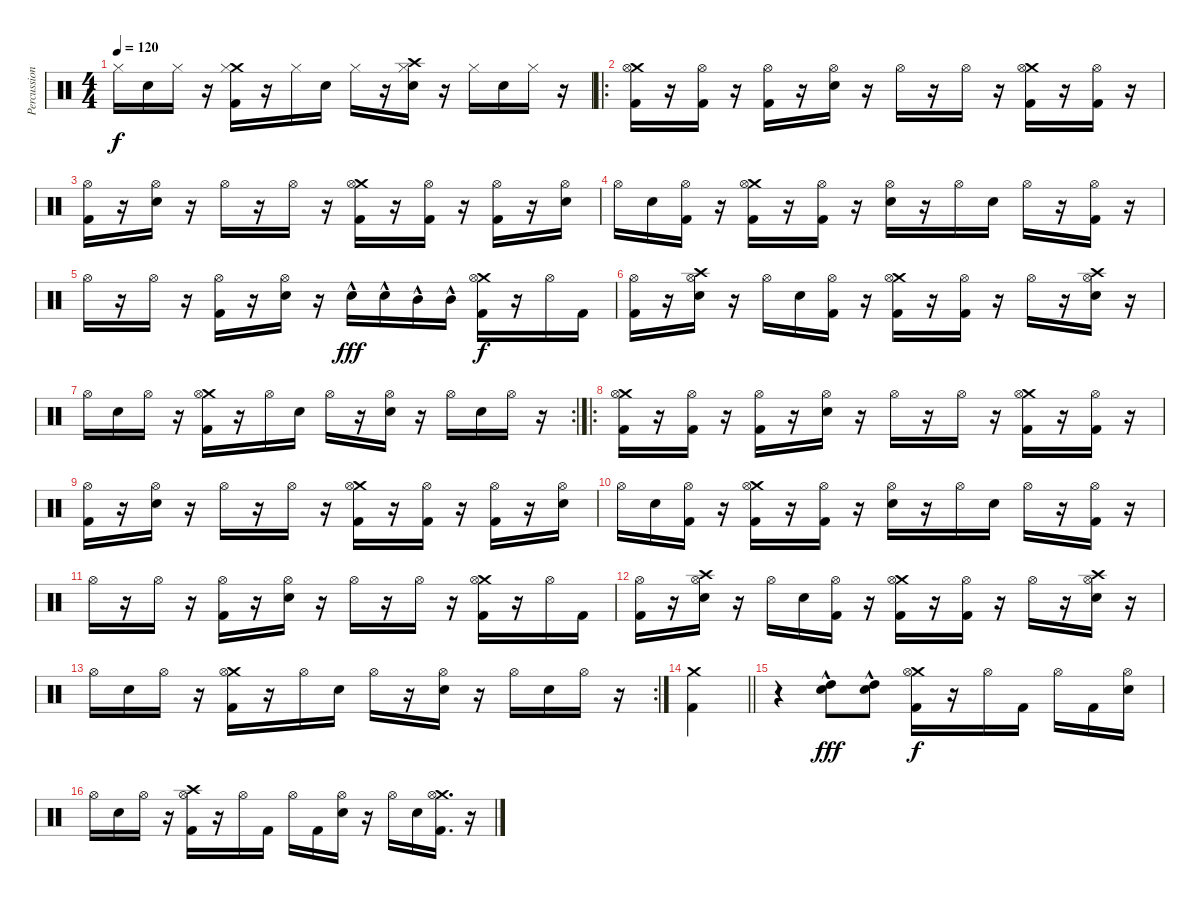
\track ("Percussion" "Percussion") {instrument percussion}
\staff {score}
\articulation defaults
\ts (4 4)
\tempo 120
\clef neutral
\ks c "Hi-Hat (closed)".16{dy f} "Electric Snare (hit)".16 "Hi-Hat (closed)".16
r.16 ("Crash medium (hit)" "Hi-Hat (closed)" "Kick (hit) 2").16 r.16 "Hi-Hat (closed)".16 "Electric Snare (hit)".16 "Hi-Hat (closed)".16 r.16 ("Crash high (hit)" "Hi-Hat (closed)" "Electric Snare (hit)").16 r.16 "Hi-Hat (closed)".16 "Electric Snare (hit)".16 "Hi-Hat (closed)".16 r.16 |
\ro
("Crash medium (hit)" "Hi-Hat (open)" "Kick (hit) 2").16 r.16 ("Hi-Hat (open)" "Kick (hit) 2").16 r.16 ("Hi-Hat (open)" "Kick (hit) 2").16 r.16 ("Hi-Hat (open)" "Electric Snare (hit)").16 r.16 "Hi-Hat (open)".16 r.16 "Hi-Hat (open)".16 r.16 ("Crash medium (hit)" "Hi-Hat (open)" "Kick (hit) 2").16 r.16 ("Hi-Hat (open)" "Kick (hit) 2").16 r.16 |
("Hi-Hat (open)" "Kick (hit) 2").16 r.16 ("Hi-Hat (open)" "Electric Snare (hit)").16 r.16 "Hi-Hat (open)".16 r.16 "Hi-Hat (open)".16 r.16 ("Crash medium (hit)" "Hi-Hat (open)" "Kick (hit) 2").16 r.16 ("Hi-Hat (open)" "Kick (hit) 2").16 r.16 ("Hi-Hat (open)" "Kick (hit) 2").16 r.16 ("Hi-Hat (open)" "Electric Snare (hit)").16 |
"Hi-Hat (open)".16 "Electric Snare (hit)".16 ("Hi-Hat (open)" "Kick (hit) 2").16 r.16 ("Crash medium (hit)" "Hi-Hat (open)" "Kick (hit) 2").16 r.16 ("Hi-Hat (open)" "Kick (hit) 2").16 r.16 ("Hi-Hat (open)" "Electric Snare (hit)").16 r.16 "Hi-Hat (open)".16 "Electric Snare (hit)".16 "Hi-Hat (open)".16 r.16 ("Hi-Hat (open)" "Kick (hit) 2").16 r.16 |
"Hi-Hat (open)".16 r.16 "Hi-Hat (open)".16 r.16 ("Hi-Hat (open)" "Kick (hit) 2").16 r.16 ("Hi-Hat (open)" "Electric Snare (hit)").16 r.16 "Electric Snare (hit)"{hac}.16{dy fff} "Electric Snare (hit)"{hac}.16 "Mid Tom (hit)"{hac}.16 "Mid Tom (hit)"{hac}.16 ("Crash medium (hit)" "Hi-Hat (open)" "Kick (hit) 2").16{dy f} r.16 "Hi-Hat (open)".16 "Kick (hit) 2".16 |
("Hi-Hat (open)" "Kick (hit) 2").16 r.16 ("Crash high (hit)" "Hi-Hat (open)" "Electric Snare (hit)").16 r.16 "Hi-Hat (open)".16 "Electric Snare (hit)".16 ("Hi-Hat (open)" "Kick (hit) 2").16 r.16 ("Crash medium (hit)" "Hi-Hat (open)" "Kick (hit) 2").16 r.16 ("Hi-Hat (open)" "Kick (hit) 2").16 r.16 "Hi-Hat (open)".16 r.16 ("Crash high (hit)" "Hi-Hat (open)" "Electric Snare (hit)").16 r.16 |
\rc 2 "Hi-Hat (open)".16 "Electric Snare (hit)".16 "Hi-Hat (open)".16
r.16 ("Crash medium (hit)" "Hi-Hat (open)" "Kick (hit) 2").16 r.16 "Hi-Hat (open)".16 "Electric Snare (hit)".16 "Hi-Hat (open)".16 r.16 ("Hi-Hat (open)" "Electric Snare (hit)").16 r.16 "Hi-Hat (open)".16 "Electric Snare (hit)".16 "Hi-Hat (open)".16 r.16 |
\ro
("Crash medium (hit)" "Hi-Hat (open)" "Kick (hit) 2").16 r.16 ("Hi-Hat (open)" "Kick (hit) 2").16 r.16 ("Hi-Hat (open)" "Kick (hit) 2").16 r.16 ("Hi-Hat (open)" "Electric Snare (hit)").16 r.16 "Hi-Hat (open)".16 r.16 "Hi-Hat (open)".16 r.16 ("Crash medium (hit)" "Hi-Hat (open)" "Kick (hit) 2").16 r.16 ("Hi-Hat (open)" "Kick (hit) 2").16 r.16 |
("Hi-Hat (open)" "Kick (hit) 2").16 r.16 ("Hi-Hat (open)" "Electric Snare (hit)").16 r.16 "Hi-Hat (open)".16 r.16 "Hi-Hat (open)".16 r.16 ("Crash medium (hit)" "Hi-Hat (open)" "Kick (hit) 2").16 r.16 ("Hi-Hat (open)" "Kick (hit) 2").16 r.16 ("Hi-Hat (open)" "Kick (hit) 2").16 r.16 ("Hi-Hat (open)" "Electric Snare (hit)").16 |
"Hi-Hat (open)".16 "Electric Snare (hit)".16 ("Hi-Hat (open)" "Kick (hit) 2").16 r.16 ("Crash medium (hit)" "Hi-Hat (open)" "Kick (hit) 2").16 r.16 ("Hi-Hat (open)" "Kick (hit) 2").16 r.16 ("Hi-Hat (open)" "Electric Snare (hit)").16 r.16 "Hi-Hat (open)".16 "Electric Snare (hit)".16 "Hi-Hat (open)".16 r.16 ("Hi-Hat (open)" "Kick (hit) 2").16 r.16 |
"Hi-Hat (open)".16 r.16 "Hi-Hat (open)".16 r.16 ("Hi-Hat (open)" "Kick (hit) 2").16 r.16 ("Hi-Hat (open)" "Electric Snare (hit)").16 r.16 "Hi-Hat (open)".16 r.16 "Hi-Hat (open)".16 r.16 ("Crash medium (hit)" "Hi-Hat (open)" "Kick (hit) 2").16 r.16 "Hi-Hat (open)".16 "Kick (hit) 2".16 |
("Hi-Hat (open)" "Kick (hit) 2").16 r.16 ("Crash high (hit)" "Hi-Hat (open)" "Electric Snare (hit)").16 r.16 "Hi-Hat (open)".16 "Electric Snare (hit)".16 ("Hi-Hat (open)" "Kick (hit) 2").16 r.16 ("Crash medium (hit)" "Hi-Hat (open)" "Kick (hit) 2").16 r.16 ("Hi-Hat (open)" "Kick (hit) 2").16 r.16 "Hi-Hat (open)".16 r.16 ("Crash high (hit)" "Hi-Hat (open)" "Electric Snare (hit)").16 r.16 |
\rc 2 "Hi-Hat (open)".16 "Electric Snare (hit)".16 "Hi-Hat (open)".16
r.16 ("Crash medium (hit)" "Hi-Hat (open)" "Kick (hit) 2").16 r.16 "Hi-Hat (open)".16 "Electric Snare (hit)".16 "Hi-Hat (open)".16 r.16 ("Hi-Hat (open)" "Electric Snare (hit)").16 r.16 "Hi-Hat (open)".16 "Electric Snare (hit)".16 "Hi-Hat (open)".16 r.16 |
\barLineRight lightlight
("Crash medium (hit)" "Kick (hit) 2").4 |
r.4 ("Electric Snare (hit)" "High Tom (hit)"{hac}).8{dy fff} ("Electric Snare (hit)" "High Tom (hit)"{hac}).8 ("Crash medium (hit)" "Hi-Hat (open)" "Kick (hit) 2").16{dy f} r.16 "Hi-Hat (open)".16 "Kick (hit) 2".16 "Hi-Hat (open)".16 "Kick (hit) 2".16 ("Hi-Hat (open)" "Electric Snare (hit)").16 |
"Hi-Hat (open)".16 "Electric Snare (hit)".16 "Hi-Hat (open)".16 r.16 ("Crash high (hit)" "Hi-Hat (open)" "Kick (hit) 2").16 r.16 "Hi-Hat (open)".16 "Kick (hit) 2".16 "Hi-Hat (open)".16 "Kick (hit) 2".16 ("Hi-Hat (open)" "Electric Snare (hit)").16 r.16 "Hi-Hat (open)".16 "Electric Snare (hit)".16 ("Crash medium (hit)" "Hi-Hat (open)" "Kick (hit) 2").16{d} r.16
